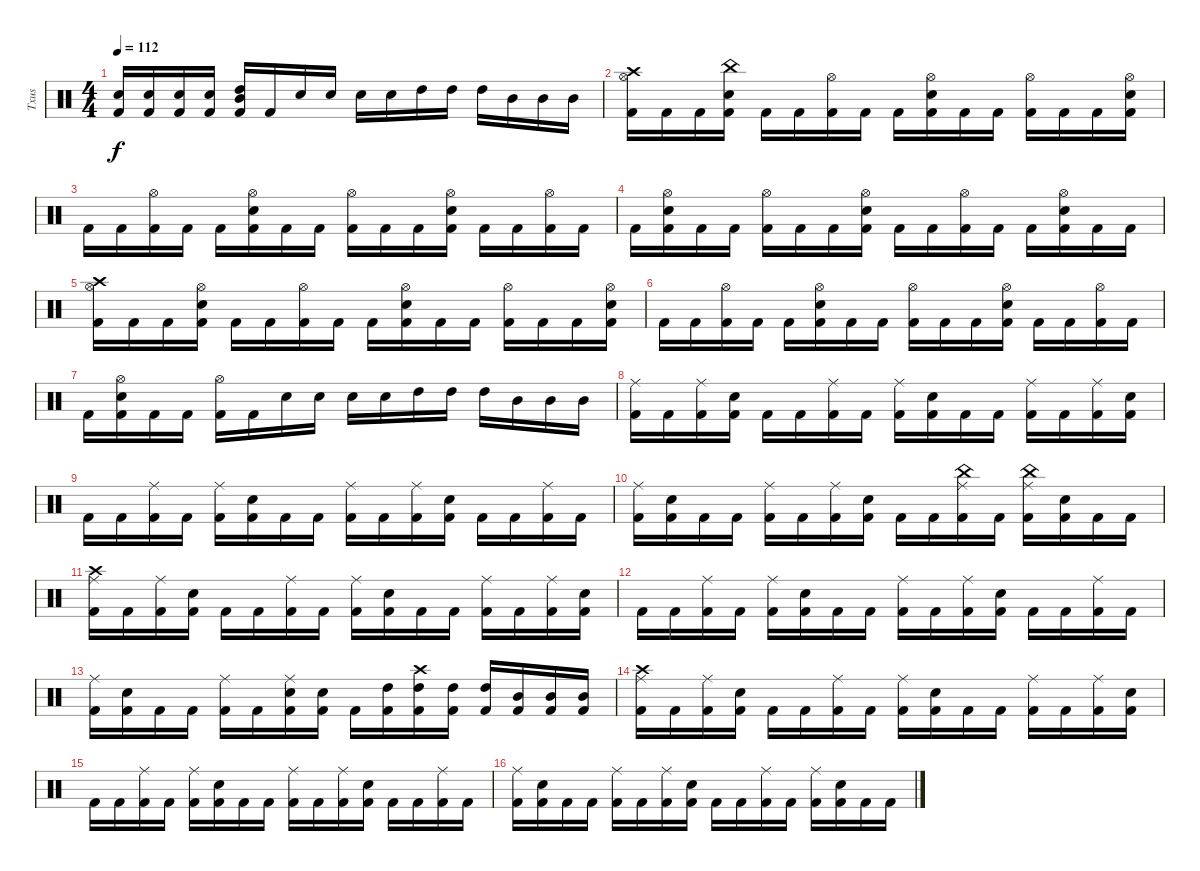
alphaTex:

\track ("Txus" "Txus") {instrument percussion}
\staff {score}
\articulation defaults
\ts (4 4)
\tempo 112
\clef neutral
\ks c
("Electric Snare (hit)" "Kick (hit) 2").16{dy f} ("Electric Snare (hit)" "Kick (hit) 2").16 ("Electric Snare (hit)" "Kick (hit) 2").16 ("Electric Snare (hit)" "Kick (hit) 2").16 ("High Tom (hit)" "Mid Tom (hit)" "Kick (hit) 2").16 "Kick (hit) 2".16 "Electric Snare (hit)".16 "Electric Snare (hit)".16 "Electric Snare (hit)".16 "Electric Snare (hit)".16 "High Tom (hit)".16 "High Tom (hit)".16 "High Tom (hit)".16 "Mid Tom (hit)".16 "Mid Tom (hit)".16 "Mid Tom (hit)".16 |
("Kick (hit) 2" "Hi-Hat (open)" "Crash high (hit)").16 "Kick (hit) 2".16 "Kick (hit) 2".16 ("Kick (hit) 2" "China (hit)" "Electric Snare (hit)").16 "Kick (hit) 2".16 "Kick (hit) 2".16 ("Kick (hit) 2" "Hi-Hat (open)").16 "Kick (hit) 2".16 "Kick (hit) 2".16 ("Kick (hit) 2" "Hi-Hat (open)" "Electric Snare (hit)").16 "Kick (hit) 2".16 "Kick (hit) 2".16 ("Kick (hit) 2" "Hi-Hat (open)").16 "Kick (hit) 2".16 "Kick (hit) 2".16 ("Kick (hit) 2" "Hi-Hat (open)" "Electric Snare (hit)").16 |
"Kick (hit) 2".16 "Kick (hit) 2".16 ("Kick (hit) 2" "Hi-Hat (open)").16 "Kick (hit) 2".16 "Kick (hit) 2".16 ("Kick (hit) 2" "Hi-Hat (open)" "Electric Snare (hit)").16 "Kick (hit) 2".16 "Kick (hit) 2".16 ("Kick (hit) 2" "Hi-Hat (open)").16 "Kick (hit) 2".16 "Kick (hit) 2".16 ("Kick (hit) 2" "Hi-Hat (open)" "Electric Snare (hit)").16 "Kick (hit) 2".16 "Kick (hit) 2".16 ("Kick (hit) 2" "Hi-Hat (open)").16 "Kick (hit) 2".16 |
"Kick (hit) 2".16 ("Kick (hit) 2" "Hi-Hat (open)" "Electric Snare (hit)").16 "Kick (hit) 2".16 "Kick (hit) 2".16 ("Kick (hit) 2" "Hi-Hat (open)").16 "Kick (hit) 2".16 "Kick (hit) 2".16 ("Kick (hit) 2" "Hi-Hat (open)" "Electric Snare (hit)").16 "Kick (hit) 2".16 "Kick (hit) 2".16 ("Kick (hit) 2" "Hi-Hat (open)").16 "Kick (hit) 2".16 "Kick (hit) 2".16 ("Kick (hit) 2" "Hi-Hat (open)" "Electric Snare (hit)").16 "Kick (hit) 2".16 "Kick (hit) 2".16 |
("Kick (hit) 2" "Hi-Hat (open)" "Crash high (hit)").16 "Kick (hit) 2".16 "Kick (hit) 2".16 ("Kick (hit) 2" "Hi-Hat (open)" "Electric Snare (hit)").16 "Kick (hit) 2".16 "Kick (hit) 2".16 ("Kick (hit) 2" "Hi-Hat (open)").16 "Kick (hit) 2".16 "Kick (hit) 2".16 ("Kick (hit) 2" "Hi-Hat (open)" "Electric Snare (hit)").16 "Kick (hit) 2".16 "Kick (hit) 2".16 ("Kick (hit) 2" "Hi-Hat (open)").16 "Kick (hit) 2".16 "Kick (hit) 2".16 ("Kick (hit) 2" "Hi-Hat (open)" "Electric Snare (hit)").16 |
"Kick (hit) 2".16 "Kick (hit) 2".16 ("Kick (hit) 2" "Hi-Hat (open)").16 "Kick (hit) 2".16 "Kick (hit) 2".16 ("Kick (hit) 2" "Hi-Hat (open)" "Electric Snare (hit)").16 "Kick (hit) 2".16 "Kick (hit) 2".16 ("Kick (hit) 2" "Hi-Hat (open)").16 "Kick (hit) 2".16 "Kick (hit) 2".16 ("Kick (hit) 2" "Hi-Hat (open)" "Electric Snare (hit)").16 "Kick (hit) 2".16 "Kick (hit) 2".16 ("Kick (hit) 2" "Hi-Hat (open)").16 "Kick (hit) 2".16 |
"Kick (hit) 2".16 ("Kick (hit) 2" "Hi-Hat (open)" "Electric Snare (hit)").16 "Kick (hit) 2".16 "Kick (hit) 2".16 ("Kick (hit) 2" "Hi-Hat (open)").16 "Kick (hit) 2".16 "Electric Snare (hit)".16 "Electric Snare (hit)".16 "Electric Snare (hit)".16 "Electric Snare (hit)".16 "High Tom (hit)".16 "High Tom (hit)".16 "High Tom (hit)".16 "Mid Tom (hit)".16 "Mid Tom (hit)".16 "Mid Tom (hit)".16 |
("Kick (hit) 2" "Ride (middle)").16 "Kick (hit) 2".16 ("Kick (hit) 2" "Ride (middle)").16 ("Kick (hit) 2" "Electric Snare (hit)").16 "Kick (hit) 2".16 "Kick (hit) 2".16 ("Kick (hit) 2" "Ride (middle)").16 "Kick (hit) 2".16 ("Kick (hit) 2" "Ride (middle)").16 ("Kick (hit) 2" "Electric Snare (hit)").16 "Kick (hit) 2".16 "Kick (hit) 2".16 ("Kick (hit) 2" "Ride (middle)").16 "Kick (hit) 2".16 ("Kick (hit) 2" "Ride (middle)").16 ("Kick (hit) 2" "Electric Snare (hit)").16 |
"Kick (hit) 2".16 "Kick (hit) 2".16 ("Kick (hit) 2" "Ride (middle)").16 "Kick (hit) 2".16 ("Kick (hit) 2" "Ride (middle)").16 ("Kick (hit) 2" "Electric Snare (hit)").16 "Kick (hit) 2".16 "Kick (hit) 2".16 ("Kick (hit) 2" "Ride (middle)").16 "Kick (hit) 2".16 ("Kick (hit) 2" "Ride (middle)").16 ("Kick (hit) 2" "Electric Snare (hit)").16 "Kick (hit) 2".16 "Kick (hit) 2".16 ("Kick (hit) 2" "Ride (middle)").16 "Kick (hit) 2".16 |
("Kick (hit) 2" "Ride (middle)").16 ("Kick (hit) 2" "Electric Snare (hit)").16 "Kick (hit) 2".16 "Kick (hit) 2".16 ("Kick (hit) 2" "Ride (middle)").16 "Kick (hit) 2".16 ("Kick (hit) 2" "Ride (middle)").16 ("Kick (hit) 2" "Electric Snare (hit)").16 "Kick (hit) 2".16 "Kick (hit) 2".16 ("Kick (hit) 2" "Ride (middle)" "China (hit)").16 "Kick (hit) 2".16 ("Kick (hit) 2" "Ride (middle)" "China (hit)").16 ("Kick (hit) 2" "Electric Snare (hit)").16 "Kick (hit) 2".16 "Kick (hit) 2".16 |
("Kick (hit) 2" "Ride (middle)" "Crash high (hit)").16 "Kick (hit) 2".16 ("Kick (hit) 2" "Ride (middle)").16 ("Kick (hit) 2" "Electric Snare (hit)").16 "Kick (hit) 2".16 "Kick (hit) 2".16 ("Kick (hit) 2" "Ride (middle)").16 "Kick (hit) 2".16 ("Kick (hit) 2" "Ride (middle)").16 ("Kick (hit) 2" "Electric Snare (hit)").16 "Kick (hit) 2".16 "Kick (hit) 2".16 ("Kick (hit) 2" "Ride (middle)").16 "Kick (hit) 2".16 ("Kick (hit) 2" "Ride (middle)").16 ("Kick (hit) 2" "Electric Snare (hit)").16 |
"Kick (hit) 2".16 "Kick (hit) 2".16 ("Kick (hit) 2" "Ride (middle)").16 "Kick (hit) 2".16 ("Kick (hit) 2" "Ride (middle)").16 ("Kick (hit) 2" "Electric Snare (hit)").16 "Kick (hit) 2".16 "Kick (hit) 2".16 ("Kick (hit) 2" "Ride (middle)").16 "Kick (hit) 2".16 ("Kick (hit) 2" "Ride (middle)").16 ("Kick (hit) 2" "Electric Snare (hit)").16 "Kick (hit) 2".16 "Kick (hit) 2".16 ("Kick (hit) 2" "Ride (middle)").16 "Kick (hit) 2".16 |
("Kick (hit) 2" "Ride (middle)").16 ("Kick (hit) 2" "Electric Snare (hit)").16{volume 12} "Kick (hit) 2".16 "Kick (hit) 2".16 ("Kick (hit) 2" "Ride (middle)").16 "Kick (hit) 2".16 ("Kick (hit) 2" "Ride (middle)" "Electric Snare (hit)").16 ("Kick (hit) 2" "Electric Snare (hit)").16 "Kick (hit) 2".16 ("Kick (hit) 2" "High Tom (hit)").16 ("Kick (hit) 2" "High Tom (hit)" "Crash high (hit)").16 ("Kick (hit) 2" "High Tom (hit)").16 ("Kick (hit) 2" "High Tom (hit)").16 ("Kick (hit) 2" "Mid Tom (hit)").16 ("Kick (hit) 2" "Mid Tom (hit)").16 ("Kick (hit) 2" "Mid Tom (hit)").16 |
("Kick (hit) 2" "Ride (middle)" "Crash high (hit)").16 "Kick (hit) 2".16 ("Kick (hit) 2" "Ride (middle)").16 ("Kick (hit) 2" "Electric Snare (hit)").16{volume 11} "Kick (hit) 2".16 "Kick (hit) 2".16 ("Kick (hit) 2" "Ride (middle)").16 "Kick (hit) 2".16 ("Kick (hit) 2" "Ride (middle)").16 ("Kick (hit) 2" "Electric Snare (hit)").16 "Kick (hit) 2".16 "Kick (hit) 2".16 ("Kick (hit) 2" "Ride (middle)").16 "Kick (hit) 2".16 ("Kick (hit) 2" "Ride (middle)").16 ("Kick (hit) 2" "Electric Snare (hit)").16 |
"Kick (hit) 2".16 "Kick (hit) 2".16 ("Kick (hit) 2" "Ride (middle)").16 "Kick (hit) 2".16 ("Kick (hit) 2" "Ride (middle)").16 ("Kick (hit) 2" "Electric Snare (hit)").16 "Kick (hit) 2".16 "Kick (hit) 2".16 ("Kick (hit) 2" "Ride (middle)").16 "Kick (hit) 2".16 ("Kick (hit) 2" "Ride (middle)").16 ("Kick (hit) 2" "Electric Snare (hit)").16 "Kick (hit) 2".16 "Kick (hit) 2".16 ("Kick (hit) 2" "Ride (middle)").16 "Kick (hit) 2".16 |
("Kick (hit) 2" "Ride (middle)").16 ("Kick (hit) 2" "Electric Snare (hit)").16 "Kick (hit) 2".16 "Kick (hit) 2".16 ("Kick (hit) 2" "Ride (middle)").16 "Kick (hit) 2".16 ("Kick (hit) 2" "Ride (middle)").16 ("Kick (hit) 2" "Electric Snare (hit)").16 "Kick (hit) 2".16 "Kick (hit) 2".16 ("Kick (hit) 2" "Ride (middle)").16 "Kick (hit) 2".16 ("Kick (hit) 2" "Ride (middle)").16 ("Kick (hit) 2" "Electric Snare (hit)").16 "Kick (hit) 2".16 "Kick (hit) 2".16
